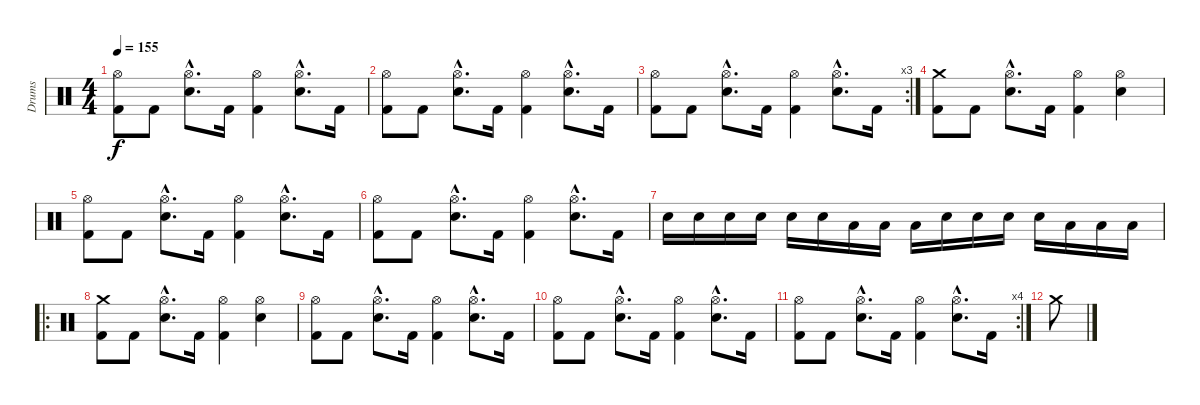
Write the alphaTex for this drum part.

\track ("Drums" "Drums") {instrument percussion}
\staff {score}
\articulation defaults
\ts (4 4)
\tempo 155
\clef neutral
\ks c
("Hi-Hat (open)" "Kick (hit) 2").8{dy f} "Kick (hit) 2".8 ("Hi-Hat (open)"{hac} "Snare (hit) 2"{hac}).8{d} "Kick (hit) 2".16 ("Hi-Hat (open)" "Kick (hit) 2").4 ("Hi-Hat (open)"{hac} "Snare (hit) 2"{hac}).8{d} "Kick (hit) 2".16 |
("Hi-Hat (open)" "Kick (hit) 2").8 "Kick (hit) 2".8 ("Hi-Hat (open)"{hac} "Snare (hit) 2"{hac}).8{d} "Kick (hit) 2".16 ("Hi-Hat (open)" "Kick (hit) 2").4 ("Hi-Hat (open)"{hac} "Snare (hit) 2"{hac}).8{d} "Kick (hit) 2".16 |
\rc 3
("Hi-Hat (open)" "Kick (hit) 2").8 "Kick (hit) 2".8 ("Hi-Hat (open)"{hac} "Snare (hit) 2"{hac}).8{d} "Kick (hit) 2".16 ("Hi-Hat (open)" "Kick (hit) 2").4 ("Hi-Hat (open)"{hac} "Snare (hit) 2"{hac}).8{d} "Kick (hit) 2".16 |
("Crash medium (hit)" "Kick (hit) 2").8 "Kick (hit) 2".8 ("Hi-Hat (open)"{hac} "Snare (hit) 2"{hac}).8{d} "Kick (hit) 2".16 ("Hi-Hat (open)" "Kick (hit) 2").4 ("Hi-Hat (open)" "Snare (hit) 2").4 |
("Hi-Hat (open)" "Kick (hit) 2").8 "Kick (hit) 2".8 ("Hi-Hat (open)"{hac} "Snare (hit) 2"{hac}).8{d} "Kick (hit) 2".16 ("Hi-Hat (open)" "Kick (hit) 2").4 ("Hi-Hat (open)"{hac} "Snare (hit) 2"{hac}).8{d} "Kick (hit) 2".16 |
("Hi-Hat (open)" "Kick (hit) 2").8 "Kick (hit) 2".8 ("Hi-Hat (open)"{hac} "Snare (hit) 2"{hac}).8{d} "Kick (hit) 2".16 ("Hi-Hat (open)" "Kick (hit) 2").4 ("Hi-Hat (open)"{hac} "Snare (hit) 2"{hac}).8{d} "Kick (hit) 2".16 |
"Snare (hit) 2".16 "Snare (hit) 2".16 "Snare (hit) 2".16 "Snare (hit) 2".16 "Snare (hit) 2".16 "Snare (hit) 2".16 "Low Floor Tom (hit)".16 "Low Floor Tom (hit)".16 "Low Floor Tom (hit)".16 "Snare (hit) 2".16 "Snare (hit) 2".16 "Snare (hit) 2".16 "Snare (hit) 2".16 "Low Floor Tom (hit)".16 "Low Floor Tom (hit)".16 "Low Floor Tom (hit)".16 |
\ro
("Crash medium (hit)" "Kick (hit) 2").8 "Kick (hit) 2".8 ("Hi-Hat (open)"{hac} "Snare (hit) 2"{hac}).8{d} "Kick (hit) 2".16 ("Hi-Hat (open)" "Kick (hit) 2").4 ("Hi-Hat (open)" "Snare (hit) 2").4 |
("Hi-Hat (open)" "Kick (hit) 2").8 "Kick (hit) 2".8 ("Hi-Hat (open)"{hac} "Snare (hit) 2"{hac}).8{d} "Kick (hit) 2".16 ("Hi-Hat (open)" "Kick (hit) 2").4 ("Hi-Hat (open)"{hac} "Snare (hit) 2"{hac}).8{d} "Kick (hit) 2".16 |
("Hi-Hat (open)" "Kick (hit) 2").8 "Kick (hit) 2".8 ("Hi-Hat (open)"{hac} "Snare (hit) 2"{hac}).8{d} "Kick (hit) 2".16 ("Hi-Hat (open)" "Kick (hit) 2").4 ("Hi-Hat (open)"{hac} "Snare (hit) 2"{hac}).8{d} "Kick (hit) 2".16 |
\rc 4
("Hi-Hat (open)" "Kick (hit) 2").8 "Kick (hit) 2".8 ("Hi-Hat (open)"{hac} "Snare (hit) 2"{hac}).8{d} "Kick (hit) 2".16 ("Hi-Hat (open)" "Kick (hit) 2").4 ("Hi-Hat (open)"{hac} "Snare (hit) 2"{hac}).8{d} "Kick (hit) 2".16 |
"Crash medium (hit)".8
